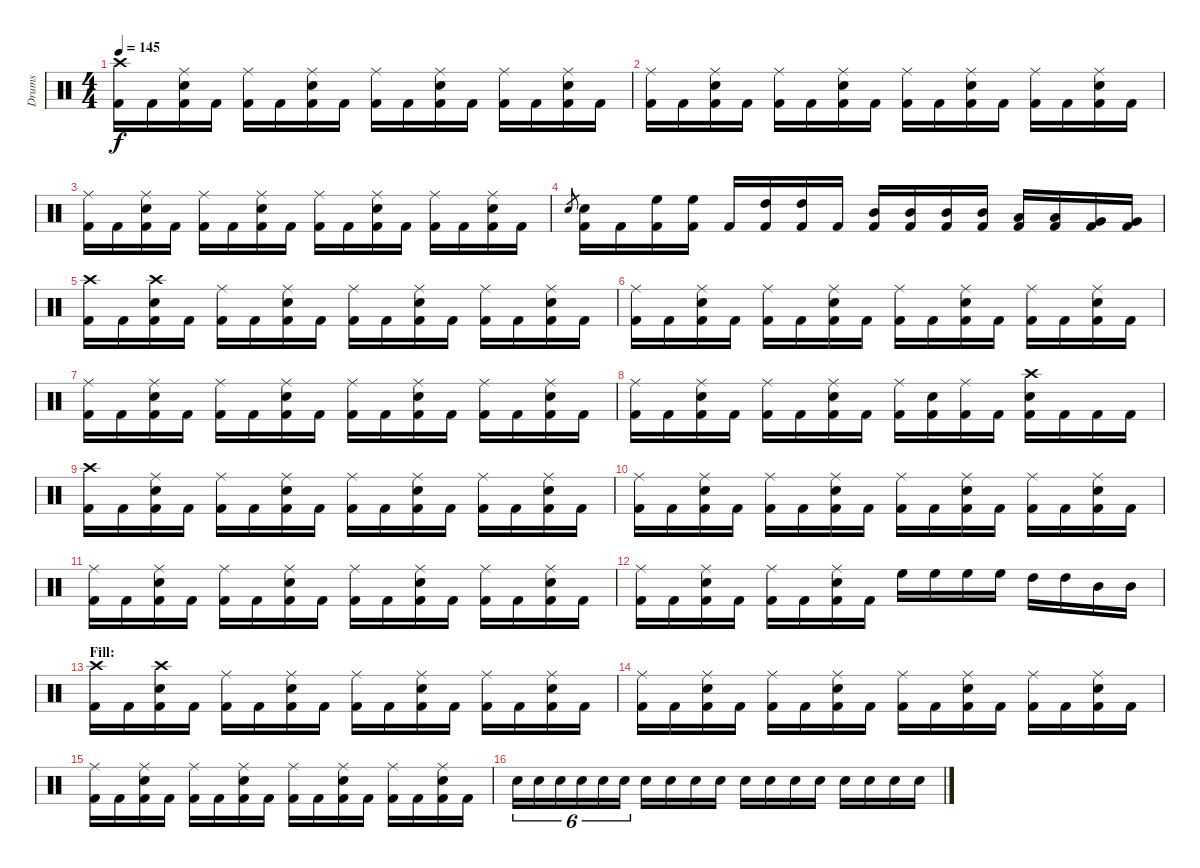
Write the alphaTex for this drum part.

\track ("Drums" "Drums") {instrument percussion}
\staff {score}
\articulation defaults
\ts (4 4)
\tempo 145
\clef neutral
\ks c
("Crash high (hit)" "Kick (hit) 2").16{dy f} "Kick (hit) 2".16 ("Ride (middle)" "Electric Snare (hit)" "Kick (hit) 2").16 "Kick (hit) 2".16 ("Ride (middle)" "Kick (hit) 2").16 "Kick (hit) 2".16 ("Ride (middle)" "Electric Snare (hit)" "Kick (hit) 2").16 "Kick (hit) 2".16 ("Ride (middle)" "Kick (hit) 2").16 "Kick (hit) 2".16 ("Ride (middle)" "Electric Snare (hit)" "Kick (hit) 2").16 "Kick (hit) 2".16 ("Ride (middle)" "Kick (hit) 2").16 "Kick (hit) 2".16 ("Ride (middle)" "Electric Snare (hit)" "Kick (hit) 2").16 "Kick (hit) 2".16 |
("Ride (middle)" "Kick (hit) 2").16 "Kick (hit) 2".16 ("Ride (middle)" "Electric Snare (hit)" "Kick (hit) 2").16 "Kick (hit) 2".16 ("Ride (middle)" "Kick (hit) 2").16 "Kick (hit) 2".16 ("Ride (middle)" "Electric Snare (hit)" "Kick (hit) 2").16 "Kick (hit) 2".16 ("Ride (middle)" "Kick (hit) 2").16 "Kick (hit) 2".16 ("Ride (middle)" "Electric Snare (hit)" "Kick (hit) 2").16 "Kick (hit) 2".16 ("Ride (middle)" "Kick (hit) 2").16 "Kick (hit) 2".16 ("Ride (middle)" "Electric Snare (hit)" "Kick (hit) 2").16 "Kick (hit) 2".16 |
("Ride (middle)" "Kick (hit) 2").16 "Kick (hit) 2".16 ("Ride (middle)" "Electric Snare (hit)" "Kick (hit) 2").16 "Kick (hit) 2".16 ("Ride (middle)" "Kick (hit) 2").16 "Kick (hit) 2".16 ("Ride (middle)" "Electric Snare (hit)" "Kick (hit) 2").16 "Kick (hit) 2".16 ("Ride (middle)" "Kick (hit) 2").16 "Kick (hit) 2".16 ("Ride (middle)" "Electric Snare (hit)" "Kick (hit) 2").16 "Kick (hit) 2".16 ("Ride (middle)" "Kick (hit) 2").16 "Kick (hit) 2".16 ("Ride (middle)" "Electric Snare (hit)" "Kick (hit) 2").16 "Kick (hit) 2".16 |
"Electric Snare (hit)".8{gr} ("Electric Snare (hit)" "Kick (hit) 2").16 "Kick (hit) 2".16 ("High Floor Tom (hit)" "Kick (hit) 2").16 ("High Floor Tom (hit)" "Kick (hit) 2").16 "Kick (hit) 2".16 ("High Tom (hit)" "Kick (hit) 2").16 ("High Tom (hit)" "Kick (hit) 2").16 "Kick (hit) 2".16 ("Mid Tom (hit)" "Kick (hit) 2").16 ("Mid Tom (hit)" "Kick (hit) 2").16 ("Mid Tom (hit)" "Kick (hit) 2").16 ("Mid Tom (hit)" "Kick (hit) 2").16 ("Low Tom (hit)" "Kick (hit) 2").16 ("Low Tom (hit)" "Kick (hit) 2").16 ("Very Low Tom (hit)" "Kick (hit) 2").16 ("Very Low Tom (hit)" "Kick (hit) 2").16 |
("Crash high (hit)" "Kick (hit) 2").16 "Kick (hit) 2".16 ("Crash high (hit)" "Electric Snare (hit)" "Kick (hit) 2").16 "Kick (hit) 2".16 ("Ride (middle)" "Kick (hit) 2").16 "Kick (hit) 2".16 ("Ride (middle)" "Electric Snare (hit)" "Kick (hit) 2").16 "Kick (hit) 2".16 ("Ride (middle)" "Kick (hit) 2").16 "Kick (hit) 2".16 ("Ride (middle)" "Electric Snare (hit)" "Kick (hit) 2").16 "Kick (hit) 2".16 ("Ride (middle)" "Kick (hit) 2").16 "Kick (hit) 2".16 ("Ride (middle)" "Electric Snare (hit)" "Kick (hit) 2").16 "Kick (hit) 2".16 |
("Ride (middle)" "Kick (hit) 2").16 "Kick (hit) 2".16 ("Ride (middle)" "Electric Snare (hit)" "Kick (hit) 2").16 "Kick (hit) 2".16 ("Ride (middle)" "Kick (hit) 2").16 "Kick (hit) 2".16 ("Ride (middle)" "Electric Snare (hit)" "Kick (hit) 2").16 "Kick (hit) 2".16 ("Ride (middle)" "Kick (hit) 2").16 "Kick (hit) 2".16 ("Ride (middle)" "Electric Snare (hit)" "Kick (hit) 2").16 "Kick (hit) 2".16 ("Ride (middle)" "Kick (hit) 2").16 "Kick (hit) 2".16 ("Ride (middle)" "Electric Snare (hit)" "Kick (hit) 2").16 "Kick (hit) 2".16 |
("Ride (middle)" "Kick (hit) 2").16 "Kick (hit) 2".16 ("Ride (middle)" "Electric Snare (hit)" "Kick (hit) 2").16 "Kick (hit) 2".16 ("Ride (middle)" "Kick (hit) 2").16 "Kick (hit) 2".16 ("Ride (middle)" "Electric Snare (hit)" "Kick (hit) 2").16 "Kick (hit) 2".16 ("Ride (middle)" "Kick (hit) 2").16 "Kick (hit) 2".16 ("Ride (middle)" "Electric Snare (hit)" "Kick (hit) 2").16 "Kick (hit) 2".16 ("Ride (middle)" "Kick (hit) 2").16 "Kick (hit) 2".16 ("Ride (middle)" "Electric Snare (hit)" "Kick (hit) 2").16 "Kick (hit) 2".16 |
("Ride (middle)" "Kick (hit) 2").16 "Kick (hit) 2".16 ("Ride (middle)" "Electric Snare (hit)" "Kick (hit) 2").16 "Kick (hit) 2".16 ("Ride (middle)" "Kick (hit) 2").16 "Kick (hit) 2".16 ("Ride (middle)" "Electric Snare (hit)" "Kick (hit) 2").16 "Kick (hit) 2".16 ("Ride (middle)" "Kick (hit) 2").16 ("Electric Snare (hit)" "Kick (hit) 2").16 ("Ride (middle)" "Kick (hit) 2").16 "Kick (hit) 2".16 ("Crash high (hit)" "Electric Snare (hit)" "Kick (hit) 2").16 "Kick (hit) 2".16 "Kick (hit) 2".16 "Kick (hit) 2".16 |
("Crash high (hit)" "Kick (hit) 2").16 "Kick (hit) 2".16 ("Ride (middle)" "Electric Snare (hit)" "Kick (hit) 2").16 "Kick (hit) 2".16 ("Ride (middle)" "Kick (hit) 2").16 "Kick (hit) 2".16 ("Ride (middle)" "Electric Snare (hit)" "Kick (hit) 2").16 "Kick (hit) 2".16 ("Ride (middle)" "Kick (hit) 2").16 "Kick (hit) 2".16 ("Ride (middle)" "Electric Snare (hit)" "Kick (hit) 2").16 "Kick (hit) 2".16 ("Ride (middle)" "Kick (hit) 2").16 "Kick (hit) 2".16 ("Ride (middle)" "Electric Snare (hit)" "Kick (hit) 2").16 "Kick (hit) 2".16 |
("Ride (middle)" "Kick (hit) 2").16 "Kick (hit) 2".16 ("Ride (middle)" "Electric Snare (hit)" "Kick (hit) 2").16 "Kick (hit) 2".16 ("Ride (middle)" "Kick (hit) 2").16 "Kick (hit) 2".16 ("Ride (middle)" "Electric Snare (hit)" "Kick (hit) 2").16 "Kick (hit) 2".16 ("Ride (middle)" "Kick (hit) 2").16 "Kick (hit) 2".16 ("Ride (middle)" "Electric Snare (hit)" "Kick (hit) 2").16 "Kick (hit) 2".16 ("Ride (middle)" "Kick (hit) 2").16 "Kick (hit) 2".16 ("Ride (middle)" "Electric Snare (hit)" "Kick (hit) 2").16 "Kick (hit) 2".16 |
("Ride (middle)" "Kick (hit) 2").16 "Kick (hit) 2".16 ("Ride (middle)" "Electric Snare (hit)" "Kick (hit) 2").16 "Kick (hit) 2".16 ("Ride (middle)" "Kick (hit) 2").16 "Kick (hit) 2".16 ("Ride (middle)" "Electric Snare (hit)" "Kick (hit) 2").16 "Kick (hit) 2".16 ("Ride (middle)" "Kick (hit) 2").16 "Kick (hit) 2".16 ("Ride (middle)" "Electric Snare (hit)" "Kick (hit) 2").16 "Kick (hit) 2".16 ("Ride (middle)" "Kick (hit) 2").16 "Kick (hit) 2".16 ("Ride (middle)" "Electric Snare (hit)" "Kick (hit) 2").16 "Kick (hit) 2".16 |
("Ride (middle)" "Kick (hit) 2").16 "Kick (hit) 2".16 ("Ride (middle)" "Electric Snare (hit)" "Kick (hit) 2").16 "Kick (hit) 2".16 ("Ride (middle)" "Kick (hit) 2").16 "Kick (hit) 2".16 ("Ride (middle)" "Electric Snare (hit)" "Kick (hit) 2").16 "Kick (hit) 2".16 "High Floor Tom (hit)".16 "High Floor Tom (hit)".16 "High Floor Tom (hit)".16 "High Floor Tom (hit)".16 "High Tom (hit)".16 "High Tom (hit)".16 "Mid Tom (hit)".16 "Mid Tom (hit)".16 |
\section ("" "Fill:")
("Crash high (hit)" "Kick (hit) 2").16 "Kick (hit) 2".16 ("Crash high (hit)" "Electric Snare (hit)" "Kick (hit) 2").16 "Kick (hit) 2".16 ("Ride (middle)" "Kick (hit) 2").16 "Kick (hit) 2".16 ("Ride (middle)" "Electric Snare (hit)" "Kick (hit) 2").16 "Kick (hit) 2".16 ("Ride (middle)" "Kick (hit) 2").16 "Kick (hit) 2".16 ("Ride (middle)" "Electric Snare (hit)" "Kick (hit) 2").16 "Kick (hit) 2".16 ("Ride (middle)" "Kick (hit) 2").16 "Kick (hit) 2".16 ("Ride (middle)" "Electric Snare (hit)" "Kick (hit) 2").16 "Kick (hit) 2".16 |
("Ride (middle)" "Kick (hit) 2").16 "Kick (hit) 2".16 ("Ride (middle)" "Electric Snare (hit)" "Kick (hit) 2").16 "Kick (hit) 2".16 ("Ride (middle)" "Kick (hit) 2").16 "Kick (hit) 2".16 ("Ride (middle)" "Electric Snare (hit)" "Kick (hit) 2").16 "Kick (hit) 2".16 ("Ride (middle)" "Kick (hit) 2").16 "Kick (hit) 2".16 ("Ride (middle)" "Electric Snare (hit)" "Kick (hit) 2").16 "Kick (hit) 2".16 ("Ride (middle)" "Kick (hit) 2").16 "Kick (hit) 2".16 ("Ride (middle)" "Electric Snare (hit)" "Kick (hit) 2").16 "Kick (hit) 2".16 |
("Ride (middle)" "Kick (hit) 2").16 "Kick (hit) 2".16 ("Ride (middle)" "Electric Snare (hit)" "Kick (hit) 2").16 "Kick (hit) 2".16 ("Ride (middle)" "Kick (hit) 2").16 "Kick (hit) 2".16 ("Ride (middle)" "Electric Snare (hit)" "Kick (hit) 2").16 "Kick (hit) 2".16 ("Ride (middle)" "Kick (hit) 2").16 "Kick (hit) 2".16 ("Ride (middle)" "Electric Snare (hit)" "Kick (hit) 2").16 "Kick (hit) 2".16 ("Ride (middle)" "Kick (hit) 2").16 "Kick (hit) 2".16 ("Ride (middle)" "Electric Snare (hit)" "Kick (hit) 2").16 "Kick (hit) 2".16 |
"Electric Snare (hit)".16{tu (6 4)} "Electric Snare (hit)".16{tu (6 4)} "Electric Snare (hit)".16{tu (6 4)} "Electric Snare (hit)".16{tu (6 4)} "Electric Snare (hit)".16{tu (6 4)} "Electric Snare (hit)".16{tu (6 4)} "Electric Snare (hit)".16 "Electric Snare (hit)".16 "Electric Snare (hit)".16 "Electric Snare (hit)".16 "Electric Snare (hit)".16 "Electric Snare (hit)".16 "Electric Snare (hit)".16 "Electric Snare (hit)".16 "Electric Snare (hit)".16 "Electric Snare (hit)".16 "Electric Snare (hit)".16 "Electric Snare (hit)".16
